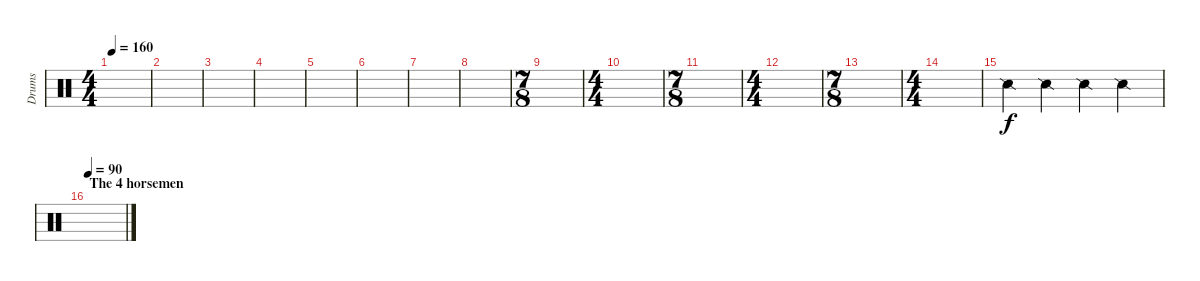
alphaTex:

\track ("Drums" "Drums") {instrument percussion}
\staff {score}
\articulation defaults
\ts (4 4)
\tempo 160
\clef neutral
\ks c
|
|
|
|
|
|
|
|
\ts (7 8)
|
\ts (4 4)
|
\ts (7 8)
|
\ts (4 4)
|
\ts (7 8)
|
\ts (4 4)
|
"Snare (side stick) 2".4 "Snare (side stick) 2".4 "Snare (side stick) 2".4 "Snare (side stick) 2".4 |
\section ("" "The 4 horsemen")
\tempo 90
